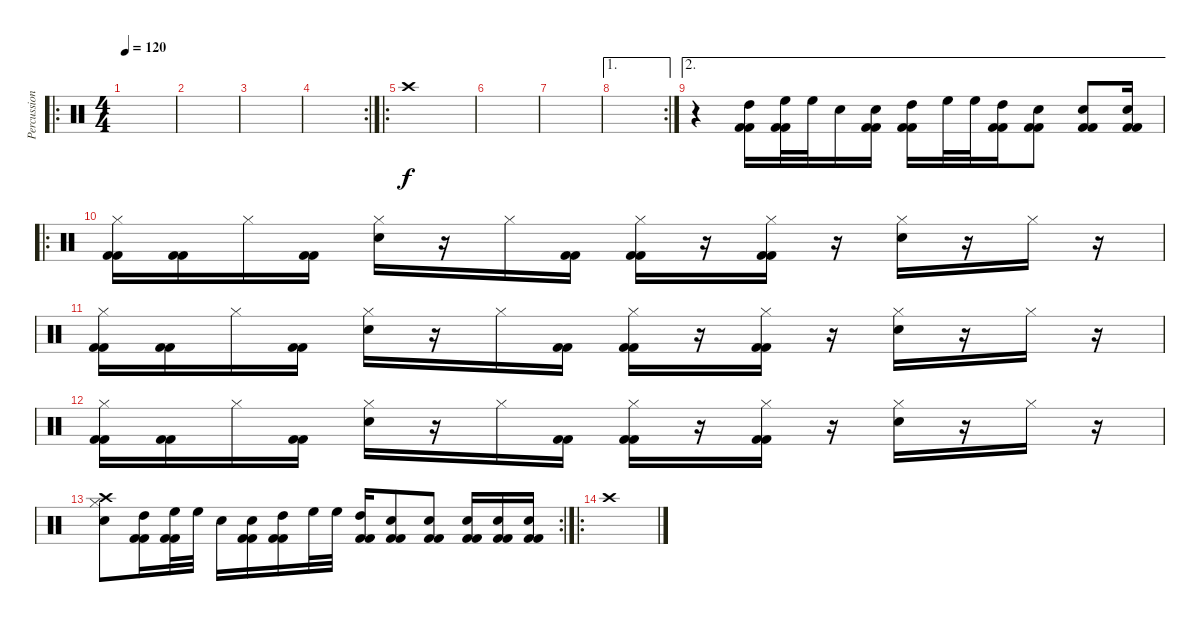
\track ("Percussion" "Percussion") {instrument percussion}
\staff {score}
\articulation defaults
\ro
\ts (4 4)
\tempo 120
\clef neutral
\ks c
|
|
|
\rc 2
|
\ro "Crash high (hit)".1
|
|
|
\ae 1
\rc 2
|
\ae 2
r.4 ("High Tom (hit)" "Kick (hit) 2" "Kick (hit) 2").16 ("High Floor Tom (hit)" "Kick (hit) 2" "Kick (hit) 2").32 "High Floor Tom (hit)".32 "Snare (hit) 2".16 ("Snare (hit) 2" "Kick (hit) 2" "Kick (hit) 2").16 ("High Tom (hit)" "Kick (hit) 2" "Kick (hit) 2").16 "High Floor Tom (hit)".32 "High Floor Tom (hit)".32 ("High Tom (hit)" "Kick (hit) 2" "Kick (hit) 2").16 ("Snare (hit) 2" "Kick (hit) 2" "Kick (hit) 2").8 ("Snare (hit) 2" "Kick (hit) 2" "Kick (hit) 2").8 ("Snare (hit) 2" "Kick (hit) 2" "Kick (hit) 2").16 |
\ro
("Hi-Hat (closed)" "Kick (hit) 2" "Kick (hit) 2").16 ("Kick (hit) 2" "Kick (hit) 2").16 "Hi-Hat (closed)".16 ("Kick (hit) 2" "Kick (hit) 2").16 ("Hi-Hat (closed)" "Snare (hit) 2").16 r.16 "Hi-Hat (closed)".16 ("Kick (hit) 2" "Kick (hit) 2").16 ("Hi-Hat (closed)" "Kick (hit) 2" "Kick (hit) 2").16 r.16 ("Hi-Hat (closed)" "Kick (hit) 2" "Kick (hit) 2").16 r.16 ("Hi-Hat (closed)" "Snare (hit) 2").16 r.16 "Hi-Hat (closed)".16 r.16 |
("Hi-Hat (closed)" "Kick (hit) 2" "Kick (hit) 2").16 ("Kick (hit) 2" "Kick (hit) 2").16 "Hi-Hat (closed)".16 ("Kick (hit) 2" "Kick (hit) 2").16 ("Hi-Hat (closed)" "Snare (hit) 2").16 r.16 "Hi-Hat (closed)".16 ("Kick (hit) 2" "Kick (hit) 2").16 ("Hi-Hat (closed)" "Kick (hit) 2" "Kick (hit) 2").16 r.16 ("Hi-Hat (closed)" "Kick (hit) 2" "Kick (hit) 2").16 r.16 ("Hi-Hat (closed)" "Snare (hit) 2").16 r.16 "Hi-Hat (closed)".16 r.16 |
("Hi-Hat (closed)" "Kick (hit) 2" "Kick (hit) 2").16 ("Kick (hit) 2" "Kick (hit) 2").16 "Hi-Hat (closed)".16 ("Kick (hit) 2" "Kick (hit) 2").16 ("Hi-Hat (closed)" "Snare (hit) 2").16 r.16 "Hi-Hat (closed)".16 ("Kick (hit) 2" "Kick (hit) 2").16 ("Hi-Hat (closed)" "Kick (hit) 2" "Kick (hit) 2").16 r.16 ("Hi-Hat (closed)" "Kick (hit) 2" "Kick (hit) 2").16 r.16 ("Hi-Hat (closed)" "Snare (hit) 2").16 r.16 "Hi-Hat (closed)".16 r.16 |
\rc 2
("Hi-Hat (closed)" "Crash high (hit)" "Snare (hit) 2").8 ("High Tom (hit)" "Kick (hit) 2" "Kick (hit) 2").16 ("High Floor Tom (hit)" "Kick (hit) 2" "Kick (hit) 2").32 "High Floor Tom (hit)".32 "Snare (hit) 2".16 ("Snare (hit) 2" "Kick (hit) 2" "Kick (hit) 2").16 ("High Tom (hit)" "Kick (hit) 2" "Kick (hit) 2").16 "High Floor Tom (hit)".32 "High Floor Tom (hit)".32 ("High Tom (hit)" "Kick (hit) 2" "Kick (hit) 2").16 ("Snare (hit) 2" "Kick (hit) 2" "Kick (hit) 2").8 ("Snare (hit) 2" "Kick (hit) 2" "Kick (hit) 2").8 ("Snare (hit) 2" "Kick (hit) 2" "Kick (hit) 2").16 ("Snare (hit) 2" "Kick (hit) 2" "Kick (hit) 2").16 ("Snare (hit) 2" "Kick (hit) 2" "Kick (hit) 2").16 |
\ro "Crash high (hit)".1
